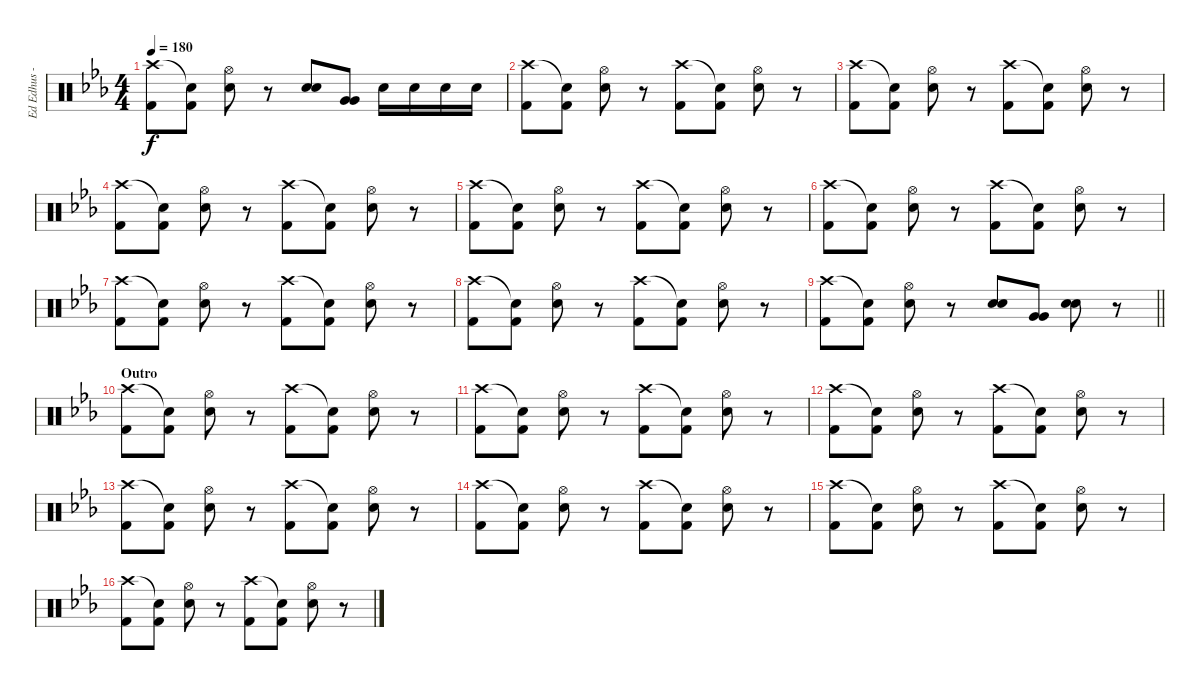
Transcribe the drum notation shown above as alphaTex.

\track ("Ed Edhus - Drums" "Ed Edhus -") {instrument percussion bank 127}
\staff {score}
\articulation defaults
\ts (4 4)
\tempo 180
\clef neutral
\ks eb
("Crash high (hit)" "Kick (hit) 2").8{dy f} ("Snare (hit)"{t} "Kick (hit) 2").8 ("Hi-Hat (open)" "Snare (hit) 2").8 r.8 ("Snare (hit) 2" "Snare (hit) 2").8 ("Very Low Tom (hit)" "Very Low Tom (hit)").8 "Snare (hit) 2".16 "Snare (hit) 2".16 "Snare (hit) 2".16 "Snare (hit) 2".16 |
("Crash high (hit)" "Kick (hit) 2").8 ("Snare (hit)"{t} "Kick (hit) 2").8 ("Hi-Hat (open)" "Snare (hit) 2").8 r.8 ("Crash high (hit)" "Kick (hit) 2").8 ("Snare (hit)"{t} "Kick (hit) 2").8 ("Hi-Hat (open)" "Snare (hit) 2").8 r.8 |
("Crash high (hit)" "Kick (hit) 2").8 ("Snare (hit)"{t} "Kick (hit) 2").8 ("Hi-Hat (open)" "Snare (hit) 2").8 r.8 ("Crash high (hit)" "Kick (hit) 2").8 ("Snare (hit)"{t} "Kick (hit) 2").8 ("Hi-Hat (open)" "Snare (hit) 2").8 r.8 |
("Crash high (hit)" "Kick (hit) 2").8 ("Snare (hit)"{t} "Kick (hit) 2").8 ("Hi-Hat (open)" "Snare (hit) 2").8 r.8 ("Crash high (hit)" "Kick (hit) 2").8 ("Snare (hit)"{t} "Kick (hit) 2").8 ("Hi-Hat (open)" "Snare (hit) 2").8 r.8 |
("Crash high (hit)" "Kick (hit) 2").8 ("Snare (hit)"{t} "Kick (hit) 2").8 ("Hi-Hat (open)" "Snare (hit) 2").8 r.8 ("Crash high (hit)" "Kick (hit) 2").8 ("Snare (hit)"{t} "Kick (hit) 2").8 ("Hi-Hat (open)" "Snare (hit) 2").8 r.8 |
("Crash high (hit)" "Kick (hit) 2").8 ("Snare (hit)"{t} "Kick (hit) 2").8 ("Hi-Hat (open)" "Snare (hit) 2").8 r.8 ("Crash high (hit)" "Kick (hit) 2").8 ("Snare (hit)"{t} "Kick (hit) 2").8 ("Hi-Hat (open)" "Snare (hit) 2").8 r.8 |
("Crash high (hit)" "Kick (hit) 2").8 ("Snare (hit)"{t} "Kick (hit) 2").8 ("Hi-Hat (open)" "Snare (hit) 2").8 r.8 ("Crash high (hit)" "Kick (hit) 2").8 ("Snare (hit)"{t} "Kick (hit) 2").8 ("Hi-Hat (open)" "Snare (hit) 2").8 r.8 |
("Crash high (hit)" "Kick (hit) 2").8 ("Snare (hit)"{t} "Kick (hit) 2").8 ("Hi-Hat (open)" "Snare (hit) 2").8 r.8 ("Crash high (hit)" "Kick (hit) 2").8 ("Snare (hit)"{t} "Kick (hit) 2").8 ("Hi-Hat (open)" "Snare (hit) 2").8 r.8 |
\barLineRight lightlight
("Crash high (hit)" "Kick (hit) 2").8 ("Snare (hit)"{t} "Kick (hit) 2").8 ("Hi-Hat (open)" "Snare (hit) 2").8 r.8 ("Snare (hit) 2" "Snare (hit) 2").8 ("Very Low Tom (hit)" "Very Low Tom (hit)").8 ("Snare (hit) 2" "Snare (hit) 2").8 r.8 |
\section ("" "Outro")
("Crash high (hit)" "Kick (hit) 2").8 ("Snare (hit)"{t} "Kick (hit) 2").8 ("Hi-Hat (open)" "Snare (hit) 2").8 r.8 ("Crash high (hit)" "Kick (hit) 2").8 ("Snare (hit)"{t} "Kick (hit) 2").8 ("Hi-Hat (open)" "Snare (hit) 2").8 r.8 |
("Crash high (hit)" "Kick (hit) 2").8 ("Snare (hit)"{t} "Kick (hit) 2").8 ("Hi-Hat (open)" "Snare (hit) 2").8 r.8 ("Crash high (hit)" "Kick (hit) 2").8 ("Snare (hit)"{t} "Kick (hit) 2").8 ("Hi-Hat (open)" "Snare (hit) 2").8 r.8 |
("Crash high (hit)" "Kick (hit) 2").8 ("Snare (hit)"{t} "Kick (hit) 2").8 ("Hi-Hat (open)" "Snare (hit) 2").8 r.8 ("Crash high (hit)" "Kick (hit) 2").8 ("Snare (hit)"{t} "Kick (hit) 2").8 ("Hi-Hat (open)" "Snare (hit) 2").8 r.8 |
("Crash high (hit)" "Kick (hit) 2").8 ("Snare (hit)"{t} "Kick (hit) 2").8 ("Hi-Hat (open)" "Snare (hit) 2").8 r.8 ("Crash high (hit)" "Kick (hit) 2").8 ("Snare (hit)"{t} "Kick (hit) 2").8 ("Hi-Hat (open)" "Snare (hit) 2").8 r.8 |
("Crash high (hit)" "Kick (hit) 2").8 ("Snare (hit)"{t} "Kick (hit) 2").8 ("Hi-Hat (open)" "Snare (hit) 2").8 r.8 ("Crash high (hit)" "Kick (hit) 2").8 ("Snare (hit)"{t} "Kick (hit) 2").8 ("Hi-Hat (open)" "Snare (hit) 2").8 r.8 |
("Crash high (hit)" "Kick (hit) 2").8 ("Snare (hit)"{t} "Kick (hit) 2").8 ("Hi-Hat (open)" "Snare (hit) 2").8 r.8 ("Crash high (hit)" "Kick (hit) 2").8 ("Snare (hit)"{t} "Kick (hit) 2").8 ("Hi-Hat (open)" "Snare (hit) 2").8 r.8 |
("Crash high (hit)" "Kick (hit) 2").8 ("Snare (hit)"{t} "Kick (hit) 2").8 ("Hi-Hat (open)" "Snare (hit) 2").8 r.8 ("Crash high (hit)" "Kick (hit) 2").8 ("Snare (hit)"{t} "Kick (hit) 2").8 ("Hi-Hat (open)" "Snare (hit) 2").8 r.8
